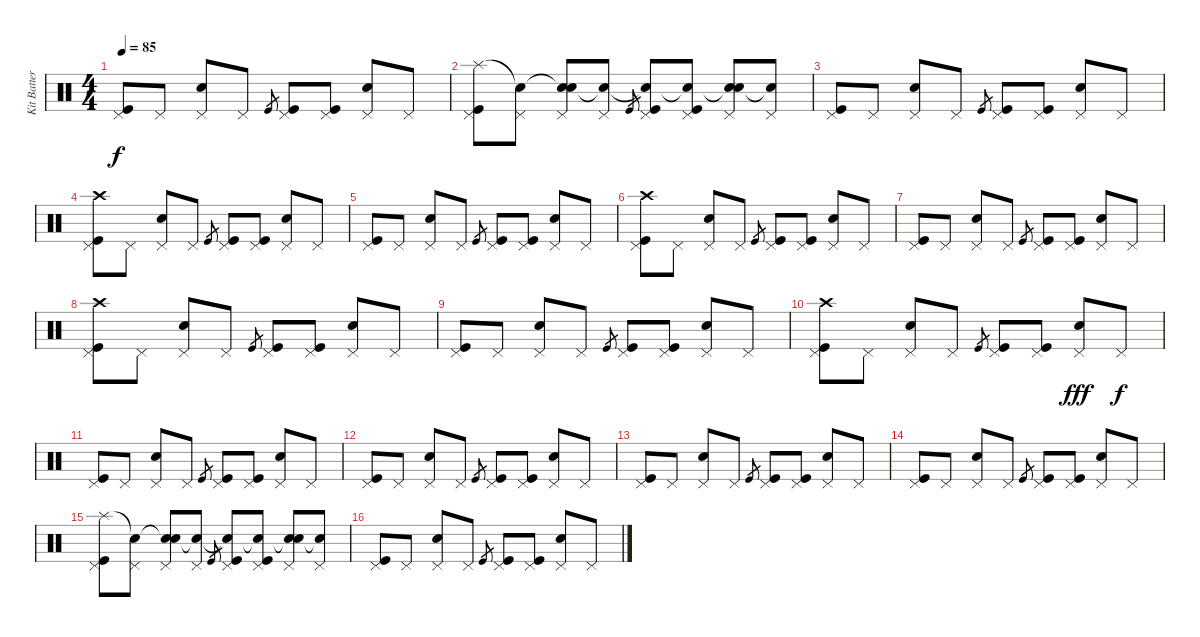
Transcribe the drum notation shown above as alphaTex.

\track ("Kit Batterie 1" "Kit Batter") {instrument percussion}
\staff {score}
\articulation defaults
\ts (4 4)
\tempo 85
\clef neutral
\ks c
("Pedal Hi-Hat (hit)" "Kick (hit)").8{dy f} "Pedal Hi-Hat (hit)".8 ("Pedal Hi-Hat (hit)" "Electric Snare (hit)").8 "Pedal Hi-Hat (hit)".8 "Kick (hit)".8{gr} ("Pedal Hi-Hat (hit)" "Kick (hit)").8 ("Pedal Hi-Hat (hit)" "Kick (hit)").8 ("Pedal Hi-Hat (hit)" "Electric Snare (hit)").8 "Pedal Hi-Hat (hit)".8 |
("Pedal Hi-Hat (hit)" "Splash (hit)" "Kick (hit)").8 ("Pedal Hi-Hat (hit)" "Snare (hit)"{t}).8 ("Pedal Hi-Hat (hit)" "Snare (hit)"{t} "Electric Snare (hit)").8 ("Pedal Hi-Hat (hit)" "Snare (hit)"{t}).8 "Kick (hit)".8{gr} ("Pedal Hi-Hat (hit)" "Snare (hit)"{t} "Kick (hit)").8 ("Pedal Hi-Hat (hit)" "Snare (hit)"{t} "Kick (hit)").8 ("Pedal Hi-Hat (hit)" "Snare (hit)"{t} "Electric Snare (hit)").8 ("Pedal Hi-Hat (hit)" "Snare (hit)"{t}).8 |
("Pedal Hi-Hat (hit)" "Kick (hit)").8 "Pedal Hi-Hat (hit)".8 ("Pedal Hi-Hat (hit)" "Electric Snare (hit)").8 "Pedal Hi-Hat (hit)".8 "Kick (hit)".8{gr} ("Pedal Hi-Hat (hit)" "Kick (hit)").8 ("Pedal Hi-Hat (hit)" "Kick (hit)").8 ("Pedal Hi-Hat (hit)" "Electric Snare (hit)").8 "Pedal Hi-Hat (hit)".8 |
("Pedal Hi-Hat (hit)" "Crash high (hit)" "Kick (hit)").8 "Pedal Hi-Hat (hit)".8 ("Pedal Hi-Hat (hit)" "Electric Snare (hit)").8 "Pedal Hi-Hat (hit)".8 "Kick (hit)".8{gr} ("Pedal Hi-Hat (hit)" "Kick (hit)").8 ("Pedal Hi-Hat (hit)" "Kick (hit)").8 ("Pedal Hi-Hat (hit)" "Electric Snare (hit)").8 "Pedal Hi-Hat (hit)".8 |
("Pedal Hi-Hat (hit)" "Kick (hit)").8 "Pedal Hi-Hat (hit)".8 ("Pedal Hi-Hat (hit)" "Electric Snare (hit)").8 "Pedal Hi-Hat (hit)".8 "Kick (hit)".8{gr} ("Pedal Hi-Hat (hit)" "Kick (hit)").8 ("Pedal Hi-Hat (hit)" "Kick (hit)").8 ("Pedal Hi-Hat (hit)" "Electric Snare (hit)").8 "Pedal Hi-Hat (hit)".8 |
("Pedal Hi-Hat (hit)" "Crash high (hit)" "Kick (hit)").8 "Pedal Hi-Hat (hit)".8 ("Pedal Hi-Hat (hit)" "Electric Snare (hit)").8 "Pedal Hi-Hat (hit)".8 "Kick (hit)".8{gr} ("Pedal Hi-Hat (hit)" "Kick (hit)").8 ("Pedal Hi-Hat (hit)" "Kick (hit)").8 ("Pedal Hi-Hat (hit)" "Electric Snare (hit)").8 "Pedal Hi-Hat (hit)".8 |
("Pedal Hi-Hat (hit)" "Kick (hit)").8 "Pedal Hi-Hat (hit)".8 ("Pedal Hi-Hat (hit)" "Electric Snare (hit)").8 "Pedal Hi-Hat (hit)".8 "Kick (hit)".8{gr} ("Pedal Hi-Hat (hit)" "Kick (hit)").8 ("Pedal Hi-Hat (hit)" "Kick (hit)").8 ("Pedal Hi-Hat (hit)" "Electric Snare (hit)").8 "Pedal Hi-Hat (hit)".8 |
("Pedal Hi-Hat (hit)" "Crash high (hit)" "Kick (hit)").8 "Pedal Hi-Hat (hit)".8 ("Pedal Hi-Hat (hit)" "Electric Snare (hit)").8 "Pedal Hi-Hat (hit)".8 "Kick (hit)".8{gr} ("Pedal Hi-Hat (hit)" "Kick (hit)").8 ("Pedal Hi-Hat (hit)" "Kick (hit)").8 ("Pedal Hi-Hat (hit)" "Electric Snare (hit)").8 "Pedal Hi-Hat (hit)".8 |
("Pedal Hi-Hat (hit)" "Kick (hit)").8 "Pedal Hi-Hat (hit)".8 ("Pedal Hi-Hat (hit)" "Electric Snare (hit)").8 "Pedal Hi-Hat (hit)".8 "Kick (hit)".8{gr} ("Pedal Hi-Hat (hit)" "Kick (hit)").8 ("Pedal Hi-Hat (hit)" "Kick (hit)").8 ("Pedal Hi-Hat (hit)" "Electric Snare (hit)").8 "Pedal Hi-Hat (hit)".8 |
("Pedal Hi-Hat (hit)" "Crash high (hit)" "Kick (hit)").8 "Pedal Hi-Hat (hit)".8 ("Pedal Hi-Hat (hit)" "Electric Snare (hit)").8 "Pedal Hi-Hat (hit)".8 "Kick (hit)".8{gr} ("Pedal Hi-Hat (hit)" "Kick (hit)").8 ("Pedal Hi-Hat (hit)" "Kick (hit)").8 ("Pedal Hi-Hat (hit)" "Electric Snare (hit)").8{dy fff} "Pedal Hi-Hat (hit)".8{dy f} |
("Pedal Hi-Hat (hit)" "Kick (hit)").8 "Pedal Hi-Hat (hit)".8 ("Pedal Hi-Hat (hit)" "Electric Snare (hit)").8 "Pedal Hi-Hat (hit)".8 "Kick (hit)".8{gr} ("Pedal Hi-Hat (hit)" "Kick (hit)").8 ("Pedal Hi-Hat (hit)" "Kick (hit)").8 ("Pedal Hi-Hat (hit)" "Electric Snare (hit)").8 "Pedal Hi-Hat (hit)".8 |
("Pedal Hi-Hat (hit)" "Kick (hit)").8 "Pedal Hi-Hat (hit)".8 ("Pedal Hi-Hat (hit)" "Electric Snare (hit)").8 "Pedal Hi-Hat (hit)".8 "Kick (hit)".8{gr} ("Pedal Hi-Hat (hit)" "Kick (hit)").8 ("Pedal Hi-Hat (hit)" "Kick (hit)").8 ("Pedal Hi-Hat (hit)" "Electric Snare (hit)").8 "Pedal Hi-Hat (hit)".8 |
("Pedal Hi-Hat (hit)" "Kick (hit)").8 "Pedal Hi-Hat (hit)".8 ("Pedal Hi-Hat (hit)" "Electric Snare (hit)").8 "Pedal Hi-Hat (hit)".8 "Kick (hit)".8{gr} ("Pedal Hi-Hat (hit)" "Kick (hit)").8 ("Pedal Hi-Hat (hit)" "Kick (hit)").8 ("Pedal Hi-Hat (hit)" "Electric Snare (hit)").8 "Pedal Hi-Hat (hit)".8 |
("Pedal Hi-Hat (hit)" "Kick (hit)").8 "Pedal Hi-Hat (hit)".8 ("Pedal Hi-Hat (hit)" "Electric Snare (hit)").8 "Pedal Hi-Hat (hit)".8 "Kick (hit)".8{gr} ("Pedal Hi-Hat (hit)" "Kick (hit)").8 ("Pedal Hi-Hat (hit)" "Kick (hit)").8 ("Pedal Hi-Hat (hit)" "Electric Snare (hit)").8 "Pedal Hi-Hat (hit)".8 |
("Pedal Hi-Hat (hit)" "Splash (hit)" "Kick (hit)").8 ("Pedal Hi-Hat (hit)" "Snare (hit)"{t}).8 ("Pedal Hi-Hat (hit)" "Snare (hit)"{t} "Electric Snare (hit)").8 ("Pedal Hi-Hat (hit)" "Snare (hit)"{t}).8 "Kick (hit)".8{gr} ("Pedal Hi-Hat (hit)" "Snare (hit)"{t} "Kick (hit)").8 ("Pedal Hi-Hat (hit)" "Snare (hit)"{t} "Kick (hit)").8 ("Pedal Hi-Hat (hit)" "Snare (hit)"{t} "Electric Snare (hit)").8 ("Pedal Hi-Hat (hit)" "Snare (hit)"{t}).8 |
("Pedal Hi-Hat (hit)" "Kick (hit)").8 "Pedal Hi-Hat (hit)".8 ("Pedal Hi-Hat (hit)" "Electric Snare (hit)").8 "Pedal Hi-Hat (hit)".8 "Kick (hit)".8{gr} ("Pedal Hi-Hat (hit)" "Kick (hit)").8 ("Pedal Hi-Hat (hit)" "Kick (hit)").8 ("Pedal Hi-Hat (hit)" "Electric Snare (hit)").8 "Pedal Hi-Hat (hit)".8
